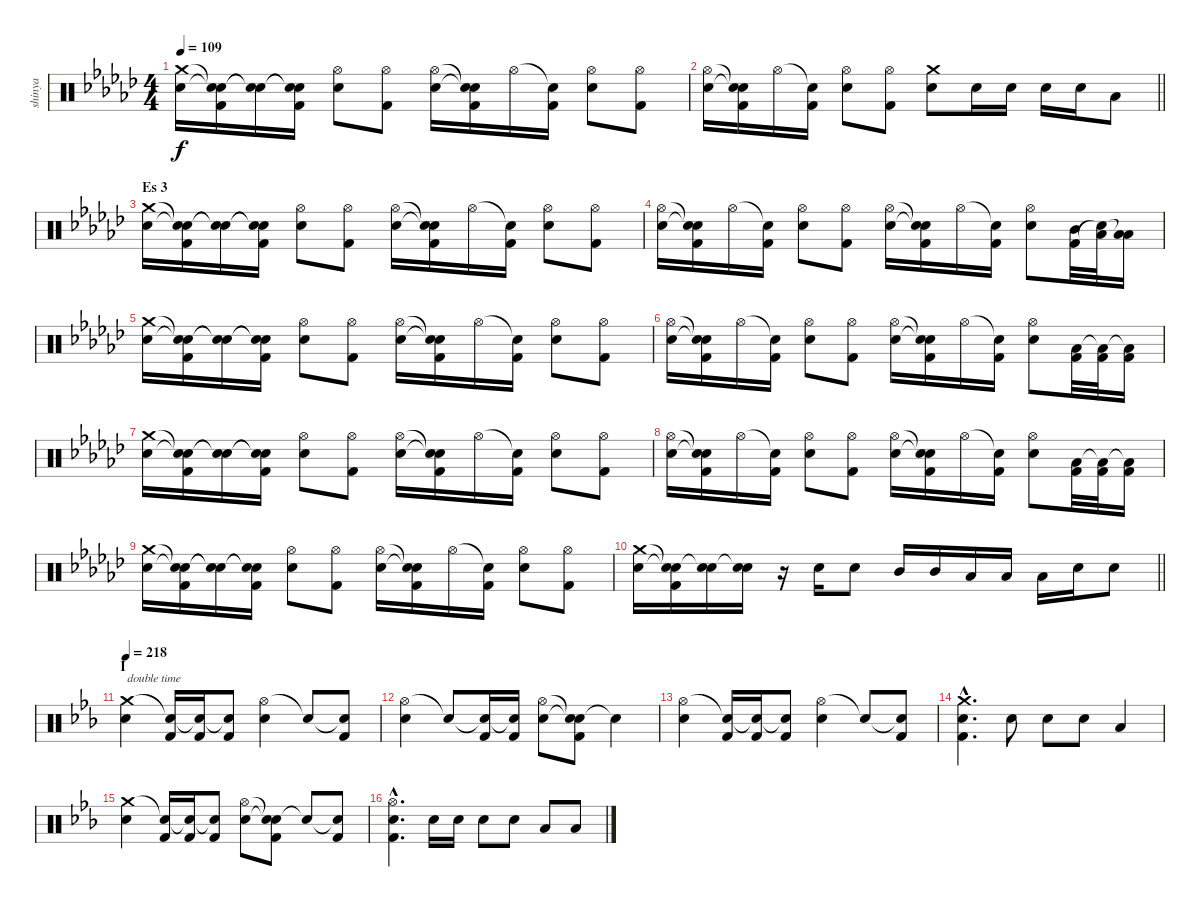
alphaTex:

\track ("shinya" "shinya") {instrument percussion}
\staff {score}
\articulation defaults
\ts (4 4)
\tempo 109
\clef neutral
\ks ebminor
("Crash medium (hit)" "Electric Snare (hit)").16{dy f} ("Snare (hit)"{t} "Snare (hit)"{t} "Kick (hit) 2").16 ("Snare (hit)"{t} "Snare (hit)"{t}).16 ("Snare (hit)"{t} "Snare (hit)"{t} "Kick (hit) 2").16 ("Hi-Hat (open)" "Electric Snare (hit)").8 ("Hi-Hat (open)" "Kick (hit) 2").8 ("Hi-Hat (open)" "Electric Snare (hit)").16 ("Snare (hit)"{t} "Snare (hit)"{t} "Kick (hit) 2").16 "Hi-Hat (open)".16 ("Snare (hit)"{t} "Kick (hit) 2").16 ("Hi-Hat (open)" "Electric Snare (hit)").8 ("Hi-Hat (open)" "Kick (hit) 2").8 |
\barLineRight lightlight
("Hi-Hat (open)" "Electric Snare (hit)").16 ("Snare (hit)"{t} "Snare (hit)"{t} "Kick (hit) 2").16 "Hi-Hat (open)".16 ("Snare (hit)"{t} "Kick (hit) 2").16 ("Hi-Hat (open)" "Electric Snare (hit)").8 ("Hi-Hat (open)" "Kick (hit) 2").8 ("Crash medium (hit)" "Electric Snare (hit)").8 "Electric Snare (hit)".16 "Electric Snare (hit)".16 "Electric Snare (hit)".16 "Electric Snare (hit)".16 "Low Floor Tom (hit)".8 |
\section ("" "Es 3")
("Crash medium (hit)" "Electric Snare (hit)").16 ("Snare (hit)"{t} "Snare (hit)"{t} "Kick (hit) 2").16 ("Snare (hit)"{t} "Snare (hit)"{t}).16 ("Snare (hit)"{t} "Snare (hit)"{t} "Kick (hit) 2").16 ("Hi-Hat (open)" "Electric Snare (hit)").8 ("Hi-Hat (open)" "Kick (hit) 2").8 ("Hi-Hat (open)" "Electric Snare (hit)").16 ("Snare (hit)"{t} "Snare (hit)"{t} "Kick (hit) 2").16 "Hi-Hat (open)".16 ("Snare (hit)"{t} "Kick (hit) 2").16 ("Hi-Hat (open)" "Electric Snare (hit)").8 ("Hi-Hat (open)" "Kick (hit) 2").8 |
("Hi-Hat (open)" "Electric Snare (hit)").16 ("Snare (hit)"{t} "Snare (hit)"{t} "Kick (hit) 2").16 "Hi-Hat (open)".16 ("Snare (hit)"{t} "Kick (hit) 2").16 ("Hi-Hat (open)" "Electric Snare (hit)").8 ("Hi-Hat (open)" "Kick (hit) 2").8 ("Hi-Hat (open)" "Electric Snare (hit)").16 ("Snare (hit)"{t} "Snare (hit)"{t} "Kick (hit) 2").16 "Hi-Hat (open)".16 ("Snare (hit)"{t} "Kick (hit) 2").16 ("Hi-Hat (open)" "Electric Snare (hit)").8 ("Mid Tom (hit)" "Kick (hit) 2").32 ("Low Tom (hit)" "Snare (hit)"{t}).32 ("Low Floor Tom (hit)" "Low Floor Tom (hit)"{t}).16 |
("Crash medium (hit)" "Electric Snare (hit)").16 ("Snare (hit)"{t} "Snare (hit)"{t} "Kick (hit) 2").16 ("Snare (hit)"{t} "Snare (hit)"{t}).16 ("Snare (hit)"{t} "Snare (hit)"{t} "Kick (hit) 2").16 ("Hi-Hat (open)" "Electric Snare (hit)").8 ("Hi-Hat (open)" "Kick (hit) 2").8 ("Hi-Hat (open)" "Electric Snare (hit)").16 ("Snare (hit)"{t} "Snare (hit)"{t} "Kick (hit) 2").16 "Hi-Hat (open)".16 ("Snare (hit)"{t} "Kick (hit) 2").16 ("Hi-Hat (open)" "Electric Snare (hit)").8 ("Hi-Hat (open)" "Kick (hit) 2").8 |
("Hi-Hat (open)" "Electric Snare (hit)").16 ("Snare (hit)"{t} "Snare (hit)"{t} "Kick (hit) 2").16 "Hi-Hat (open)".16 ("Snare (hit)"{t} "Kick (hit) 2").16 ("Hi-Hat (open)" "Electric Snare (hit)").8 ("Hi-Hat (open)" "Kick (hit) 2").8 ("Hi-Hat (open)" "Electric Snare (hit)").16 ("Snare (hit)"{t} "Snare (hit)"{t} "Kick (hit) 2").16 "Hi-Hat (open)".16 ("Snare (hit)"{t} "Kick (hit) 2").16 ("Hi-Hat (open)" "Electric Snare (hit)").8 ("Low Floor Tom (hit)" "Kick (hit) 2").32 ("Low Floor Tom (hit)"{t} "Kick (hit) 2").32 ("Low Floor Tom (hit)"{t} "Kick (hit) 2").16 |
("Crash medium (hit)" "Electric Snare (hit)").16 ("Snare (hit)"{t} "Snare (hit)"{t} "Kick (hit) 2").16 ("Snare (hit)"{t} "Snare (hit)"{t}).16 ("Snare (hit)"{t} "Snare (hit)"{t} "Kick (hit) 2").16 ("Hi-Hat (open)" "Electric Snare (hit)").8 ("Hi-Hat (open)" "Kick (hit) 2").8 ("Hi-Hat (open)" "Electric Snare (hit)").16 ("Snare (hit)"{t} "Snare (hit)"{t} "Kick (hit) 2").16 "Hi-Hat (open)".16 ("Snare (hit)"{t} "Kick (hit) 2").16 ("Hi-Hat (open)" "Electric Snare (hit)").8 ("Hi-Hat (open)" "Kick (hit) 2").8 |
("Hi-Hat (open)" "Electric Snare (hit)").16 ("Snare (hit)"{t} "Snare (hit)"{t} "Kick (hit) 2").16 "Hi-Hat (open)".16 ("Snare (hit)"{t} "Kick (hit) 2").16 ("Hi-Hat (open)" "Electric Snare (hit)").8 ("Hi-Hat (open)" "Kick (hit) 2").8 ("Hi-Hat (open)" "Electric Snare (hit)").16 ("Snare (hit)"{t} "Snare (hit)"{t} "Kick (hit) 2").16 "Hi-Hat (open)".16 ("Snare (hit)"{t} "Kick (hit) 2").16 ("Hi-Hat (open)" "Electric Snare (hit)").8 ("Low Floor Tom (hit)" "Kick (hit) 2").32 ("Low Floor Tom (hit)"{t} "Kick (hit) 2").32 ("Low Floor Tom (hit)"{t} "Kick (hit) 2").16 |
("Crash medium (hit)" "Electric Snare (hit)").16 ("Snare (hit)"{t} "Snare (hit)"{t} "Kick (hit) 2").16 ("Snare (hit)"{t} "Snare (hit)"{t}).16 ("Snare (hit)"{t} "Snare (hit)"{t} "Kick (hit) 2").16 ("Hi-Hat (open)" "Electric Snare (hit)").8 ("Hi-Hat (open)" "Kick (hit) 2").8 ("Hi-Hat (open)" "Electric Snare (hit)").16 ("Snare (hit)"{t} "Snare (hit)"{t} "Kick (hit) 2").16 "Hi-Hat (open)".16 ("Snare (hit)"{t} "Kick (hit) 2").16 ("Hi-Hat (open)" "Electric Snare (hit)").8 ("Hi-Hat (open)" "Kick (hit) 2").8 |
\barLineRight lightlight
("Crash medium (hit)" "Electric Snare (hit)").16 ("Snare (hit)"{t} "Snare (hit)"{t} "Kick (hit) 2").16 ("Electric Snare (hit)" "Snare (hit)"{t}).16 ("Electric Snare (hit)" "Snare (hit)"{t}).16 r.16 "Electric Snare (hit)".16 "Electric Snare (hit)".8 "Mid Tom (hit)".16 "Mid Tom (hit)".16 "Low Tom (hit)".16 "Low Tom (hit)".16 "Low Floor Tom (hit)".16 "Electric Snare (hit)".16 "Electric Snare (hit)".8 |
\section ("" "I")
\tempo 218
\ks eb
("Crash medium (hit)" "Electric Snare (hit)").4{txt "double time"} ("Snare (hit)"{t} "Kick (hit) 2").16 ("Snare (hit)"{t} "Kick (hit) 2").16 ("Snare (hit)"{t} "Kick (hit) 2").8 ("Hi-Hat (open)" "Electric Snare (hit)").4 "Snare (hit)"{t}.8 ("Snare (hit)"{t} "Kick (hit) 2").8 |
("Hi-Hat (open)" "Electric Snare (hit)").4 "Snare (hit)"{t}.8 ("Snare (hit)"{t} "Kick (hit) 2").16 ("Snare (hit)"{t} "Kick (hit) 2").16 ("Hi-Hat (open)" "Electric Snare (hit)").8 ("Snare (hit)"{t} "Snare (hit)"{t} "Kick (hit) 2").8 "Snare (hit)"{t}.4 |
("Hi-Hat (open)" "Electric Snare (hit)").4 ("Snare (hit)"{t} "Kick (hit) 2").16 ("Snare (hit)"{t} "Kick (hit) 2").16 ("Snare (hit)"{t} "Kick (hit) 2").8 ("Hi-Hat (open)" "Electric Snare (hit)").4 "Snare (hit)"{t}.8 ("Snare (hit)"{t} "Kick (hit) 2").8 |
("Crash medium (hit)"{hac} "Electric Snare (hit)"{hac} "Kick (hit) 2"{hac}).4{d} "Electric Snare (hit)".8 "Electric Snare (hit)".8 "Electric Snare (hit)".8 "Low Floor Tom (hit)".4 |
("Crash medium (hit)" "Electric Snare (hit)").4 ("Snare (hit)"{t} "Kick (hit) 2").16 ("Snare (hit)"{t} "Kick (hit) 2").16 ("Snare (hit)"{t} "Kick (hit) 2").8 ("Hi-Hat (open)" "Electric Snare (hit)").8 ("Snare (hit)"{t} "Snare (hit)"{t} "Kick (hit) 2").8 "Snare (hit)"{t}.8 ("Snare (hit)"{t} "Kick (hit) 2").8 |
("Hi-Hat (open)"{hac} "Electric Snare (hit)"{hac} "Kick (hit) 2"{hac}).4{d} "Electric Snare (hit)".16 "Electric Snare (hit)".16 "Electric Snare (hit)".8 "Electric Snare (hit)".8 "Low Tom (hit)".8 "Low Floor Tom (hit)".8
